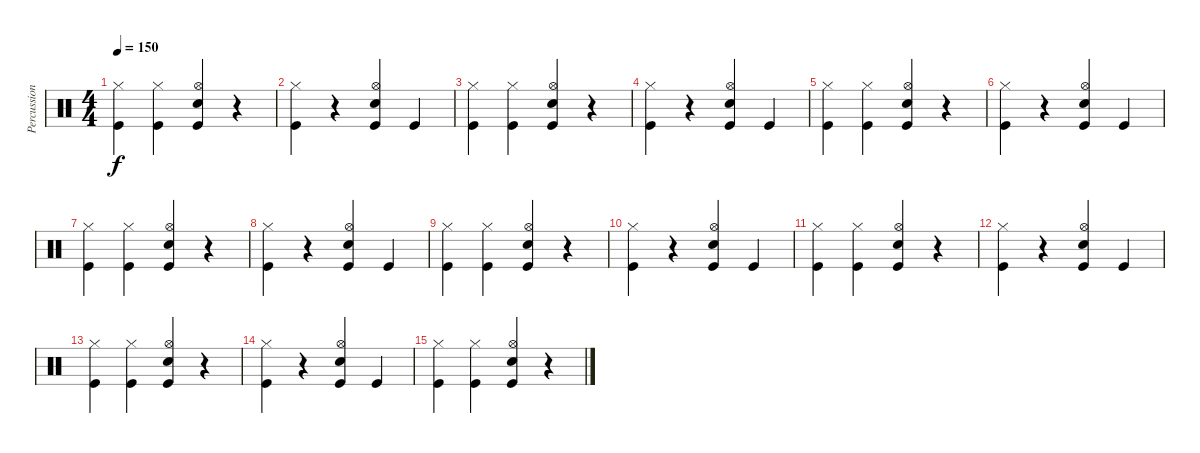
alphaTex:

\track ("Percussion" "Percussion") {instrument percussion}
\staff {score}
\articulation defaults
\ts (4 4)
\tempo 150
\clef neutral
\ks c
("Hi-Hat (closed)" "Kick (hit)").4{dy f} ("Hi-Hat (closed)" "Kick (hit)").4 ("Hi-Hat (open)" "Kick (hit)" "Electric Snare (hit)").4 r.4 |
("Hi-Hat (closed)" "Kick (hit)").4 r.4 ("Hi-Hat (open)" "Kick (hit)" "Electric Snare (hit)").4 "Kick (hit)".4 |
("Hi-Hat (closed)" "Kick (hit)").4 ("Hi-Hat (closed)" "Kick (hit)").4 ("Hi-Hat (open)" "Kick (hit)" "Electric Snare (hit)").4 r.4 |
("Hi-Hat (closed)" "Kick (hit)").4 r.4 ("Hi-Hat (open)" "Kick (hit)" "Electric Snare (hit)").4 "Kick (hit)".4 |
("Hi-Hat (closed)" "Kick (hit)").4 ("Hi-Hat (closed)" "Kick (hit)").4 ("Hi-Hat (open)" "Kick (hit)" "Electric Snare (hit)").4 r.4 |
("Hi-Hat (closed)" "Kick (hit)").4 r.4 ("Hi-Hat (open)" "Kick (hit)" "Electric Snare (hit)").4 "Kick (hit)".4 |
("Hi-Hat (closed)" "Kick (hit)").4 ("Hi-Hat (closed)" "Kick (hit)").4 ("Hi-Hat (open)" "Kick (hit)" "Electric Snare (hit)").4 r.4 |
("Hi-Hat (closed)" "Kick (hit)").4 r.4 ("Hi-Hat (open)" "Kick (hit)" "Electric Snare (hit)").4 "Kick (hit)".4 |
("Hi-Hat (closed)" "Kick (hit)").4 ("Hi-Hat (closed)" "Kick (hit)").4 ("Hi-Hat (open)" "Kick (hit)" "Electric Snare (hit)").4 r.4 |
("Hi-Hat (closed)" "Kick (hit)").4 r.4 ("Hi-Hat (open)" "Kick (hit)" "Electric Snare (hit)").4 "Kick (hit)".4 |
("Hi-Hat (closed)" "Kick (hit)").4 ("Hi-Hat (closed)" "Kick (hit)").4 ("Hi-Hat (open)" "Kick (hit)" "Electric Snare (hit)").4 r.4 |
("Hi-Hat (closed)" "Kick (hit)").4 r.4 ("Hi-Hat (open)" "Kick (hit)" "Electric Snare (hit)").4 "Kick (hit)".4 |
("Hi-Hat (closed)" "Kick (hit)").4 ("Hi-Hat (closed)" "Kick (hit)").4 ("Hi-Hat (open)" "Kick (hit)" "Electric Snare (hit)").4 r.4 |
("Hi-Hat (closed)" "Kick (hit)").4 r.4 ("Hi-Hat (open)" "Kick (hit)" "Electric Snare (hit)").4 "Kick (hit)".4 |
("Hi-Hat (closed)" "Kick (hit)").4 ("Hi-Hat (closed)" "Kick (hit)").4 ("Hi-Hat (open)" "Kick (hit)" "Electric Snare (hit)").4 r.4
